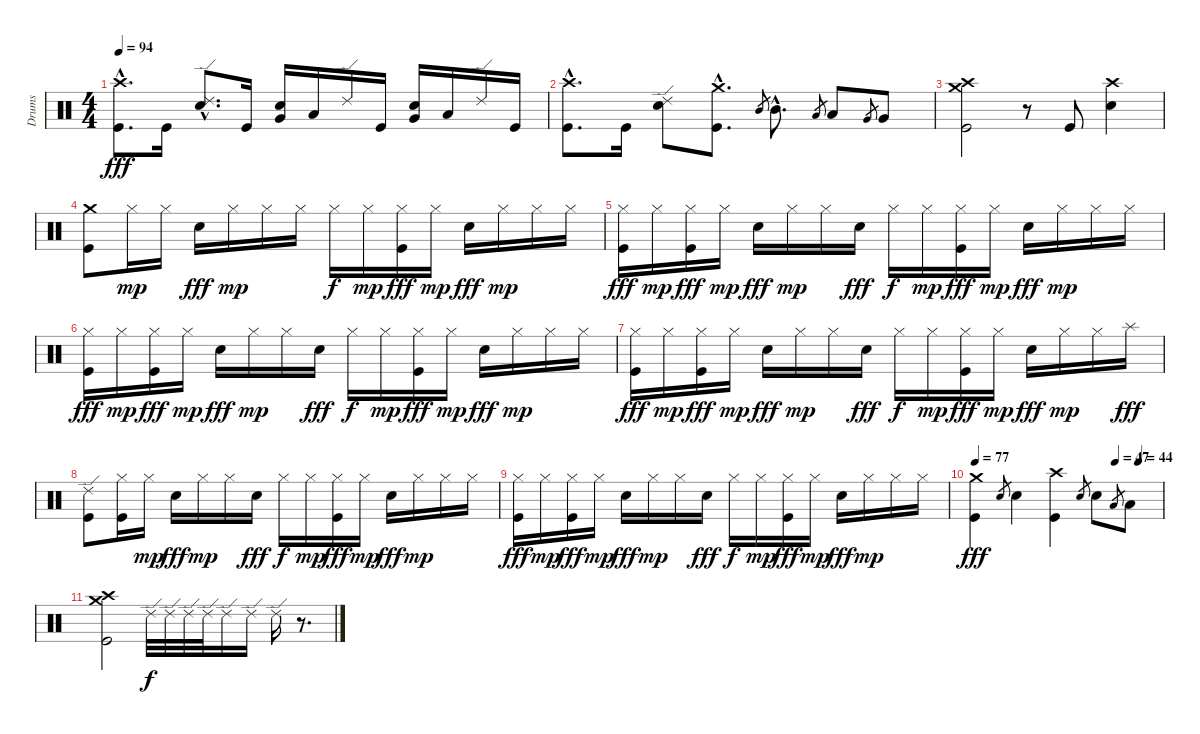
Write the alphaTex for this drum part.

\track ("Drums" "Drums") {instrument percussion}
\staff {score}
\articulation defaults
\ts (4 4)
\tempo 94
\clef neutral
\ks c
("Crash high (hit)"{hac} "Kick (hit)"{hac}).8{d dy fff} "Kick (hit)".16 ("Ride (edge) 2"{hac} "Snare (hit) 2"{hac}).8{d} "Kick (hit)".16 ("Very Low Tom (hit)" "Snare (hit) 2").16 "Low Floor Tom (hit)".16 "Ride (edge) 2".16 "Kick (hit)".16 ("Very Low Tom (hit)" "Snare (hit) 2").16 "Low Floor Tom (hit)".16 "Ride (edge) 2".16 "Kick (hit)".16 |
("Crash high (hit)"{hac} "Kick (hit)"{hac}).8{d} "Kick (hit)".16 ("Ride (edge) 2" "Snare (hit) 2").8 ("Crash medium (hit)"{hac} "Kick (hit)"{hac}).8{d} "Mid Tom (hit)".8{gr} "Mid Tom (hit)"{hac}.8{d} "Low Tom (hit)".8{gr} "Low Tom (hit)".8 "Very Low Tom (hit)".8{gr} "Very Low Tom (hit)".8 |
("Crash high (hit)" "Crash medium (hit)" "Kick (hit)").2 r.8 "Kick (hit)".8 ("Crash high (hit)" "Snare (hit) 2").4 |
("Crash medium (hit)" "Kick (hit)").8 "Hi-Hat (closed)".16{dy mp} "Hi-Hat (closed)".16 "Snare (hit) 2".16{dy fff} "Hi-Hat (closed)".16{dy mp} "Hi-Hat (closed)".16 "Hi-Hat (closed)".16 "Hi-Hat (closed)".16{dy f} "Hi-Hat (closed)".16{dy mp} ("Hi-Hat (closed)" "Kick (hit)").16{dy fff} "Hi-Hat (closed)".16{dy mp} "Snare (hit) 2".16{dy fff} "Hi-Hat (closed)".16{dy mp} "Hi-Hat (closed)".16 "Hi-Hat (closed)".16 |
("Hi-Hat (closed)" "Kick (hit)").16{dy fff} "Hi-Hat (closed)".16{dy mp} ("Hi-Hat (closed)" "Kick (hit)").16{dy fff} "Hi-Hat (closed)".16{dy mp} "Snare (hit) 2".16{dy fff} "Hi-Hat (closed)".16{dy mp} "Hi-Hat (closed)".16 "Snare (hit) 2".16{dy fff} "Hi-Hat (closed)".16{dy f} "Hi-Hat (closed)".16{dy mp} ("Hi-Hat (closed)" "Kick (hit)").16{dy fff} "Hi-Hat (closed)".16{dy mp} "Snare (hit) 2".16{dy fff} "Hi-Hat (closed)".16{dy mp} "Hi-Hat (closed)".16 "Hi-Hat (closed)".16 |
("Hi-Hat (closed)" "Kick (hit)").16{dy fff} "Hi-Hat (closed)".16{dy mp} ("Hi-Hat (closed)" "Kick (hit)").16{dy fff} "Hi-Hat (closed)".16{dy mp} "Snare (hit) 2".16{dy fff} "Hi-Hat (closed)".16{dy mp} "Hi-Hat (closed)".16 "Snare (hit) 2".16{dy fff} "Hi-Hat (closed)".16{dy f} "Hi-Hat (closed)".16{dy mp} ("Hi-Hat (closed)" "Kick (hit)").16{dy fff} "Hi-Hat (closed)".16{dy mp} "Snare (hit) 2".16{dy fff} "Hi-Hat (closed)".16{dy mp} "Hi-Hat (closed)".16 "Hi-Hat (closed)".16 |
("Hi-Hat (closed)" "Kick (hit)").16{dy fff} "Hi-Hat (closed)".16{dy mp} ("Hi-Hat (closed)" "Kick (hit)").16{dy fff} "Hi-Hat (closed)".16{dy mp} "Snare (hit) 2".16{dy fff} "Hi-Hat (closed)".16{dy mp} "Hi-Hat (closed)".16 "Snare (hit) 2".16{dy fff} "Hi-Hat (closed)".16{dy f} "Hi-Hat (closed)".16{dy mp} ("Hi-Hat (closed)" "Kick (hit)").16{dy fff} "Hi-Hat (closed)".16{dy mp} "Snare (hit) 2".16{dy fff} "Hi-Hat (closed)".16{dy mp} "Hi-Hat (closed)".16 "Splash (hit)".16{dy fff} |
("Ride (edge) 2" "Kick (hit)").8 ("Hi-Hat (closed)" "Kick (hit)").16 "Hi-Hat (closed)".16{dy mp} "Snare (hit) 2".16{dy fff} "Hi-Hat (closed)".16{dy mp} "Hi-Hat (closed)".16 "Snare (hit) 2".16{dy fff} "Hi-Hat (closed)".16{dy f} "Hi-Hat (closed)".16{dy mp} ("Hi-Hat (closed)" "Kick (hit)").16{dy fff} "Hi-Hat (closed)".16{dy mp} "Snare (hit) 2".16{dy fff} "Hi-Hat (closed)".16{dy mp} "Hi-Hat (closed)".16 "Hi-Hat (closed)".16 |
("Hi-Hat (closed)" "Kick (hit)").16{dy fff} "Hi-Hat (closed)".16{dy mp} ("Hi-Hat (closed)" "Kick (hit)").16{dy fff} "Hi-Hat (closed)".16{dy mp} "Snare (hit) 2".16{dy fff} "Hi-Hat (closed)".16{dy mp} "Hi-Hat (closed)".16 "Snare (hit) 2".16{dy fff} "Hi-Hat (closed)".16{dy f} "Hi-Hat (closed)".16{dy mp} ("Hi-Hat (closed)" "Kick (hit)").16{dy fff} "Hi-Hat (closed)".16{dy mp} "Snare (hit) 2".16{dy fff} "Hi-Hat (closed)".16{dy mp} "Hi-Hat (closed)".16 "Hi-Hat (closed)".16 |
\tempo 77
\tempo (47 0.75)
\tempo (44 0.875)
("Crash medium (hit)" "Kick (hit)").4{dy fff} "Snare (hit) 2".8{gr} "Snare (hit) 2".4 ("Crash high (hit)" "Kick (hit)").4 "Snare (hit) 2".8{gr} "Snare (hit) 2".8 "Low Tom (hit)".8{gr} "Low Tom (hit)".8 |
("Crash high (hit)" "Crash medium (hit)" "Kick (hit)").2 "Ride (edge) 2".32{dy f} "Ride (edge) 2".32 "Ride (edge) 2".32 "Ride (edge) 2".32 "Ride (edge) 2".16 "Ride (edge) 2".16 "Ride (edge) 2".16 r.8{d}
